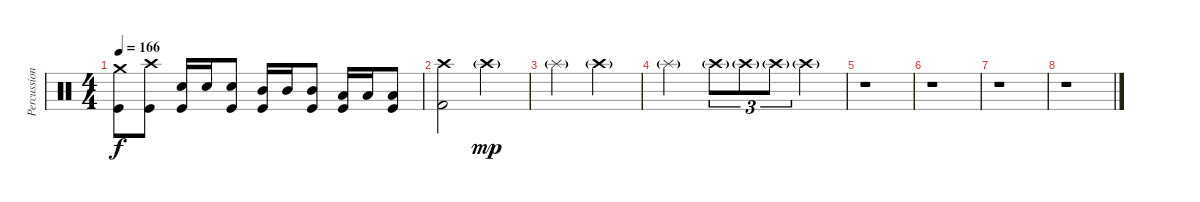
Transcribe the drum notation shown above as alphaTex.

\track ("Percussion" "Percussion") {instrument percussion}
\staff {score}
\articulation defaults
\ts (4 4)
\tempo 166
\clef neutral
\ks c
("Crash medium (hit)" "Kick (hit)").8{dy f} ("Crash high (hit)" "Kick (hit)").8 ("Electric Snare (hit)" "Kick (hit)").16 "Electric Snare (hit)".16 ("Electric Snare (hit)" "Kick (hit)").8 ("Mid Tom (hit)" "Kick (hit)").16 "Mid Tom (hit)".16 ("Mid Tom (hit)" "Kick (hit)").8 ("Low Tom (hit)" "Kick (hit)").16 "Low Tom (hit)".16 ("Low Tom (hit)" "Kick (hit)").8 |
("Crash high (hit)" "Kick (hit) 2").2 "Crash high (hit)"{g}.2{dy mp} |
"Splash (hit)"{g}.2 "Crash high (hit)"{g}.2 |
"Splash (hit)"{g}.2 "Crash high (hit)"{g}.8{tu (3 2)} "Crash high (hit)"{g}.8{tu (3 2)} "Crash high (hit)"{g}.8{tu (3 2)} "Crash high (hit)"{g}.4 |
r.1 |
r.1 |
r.1 |
r.1
